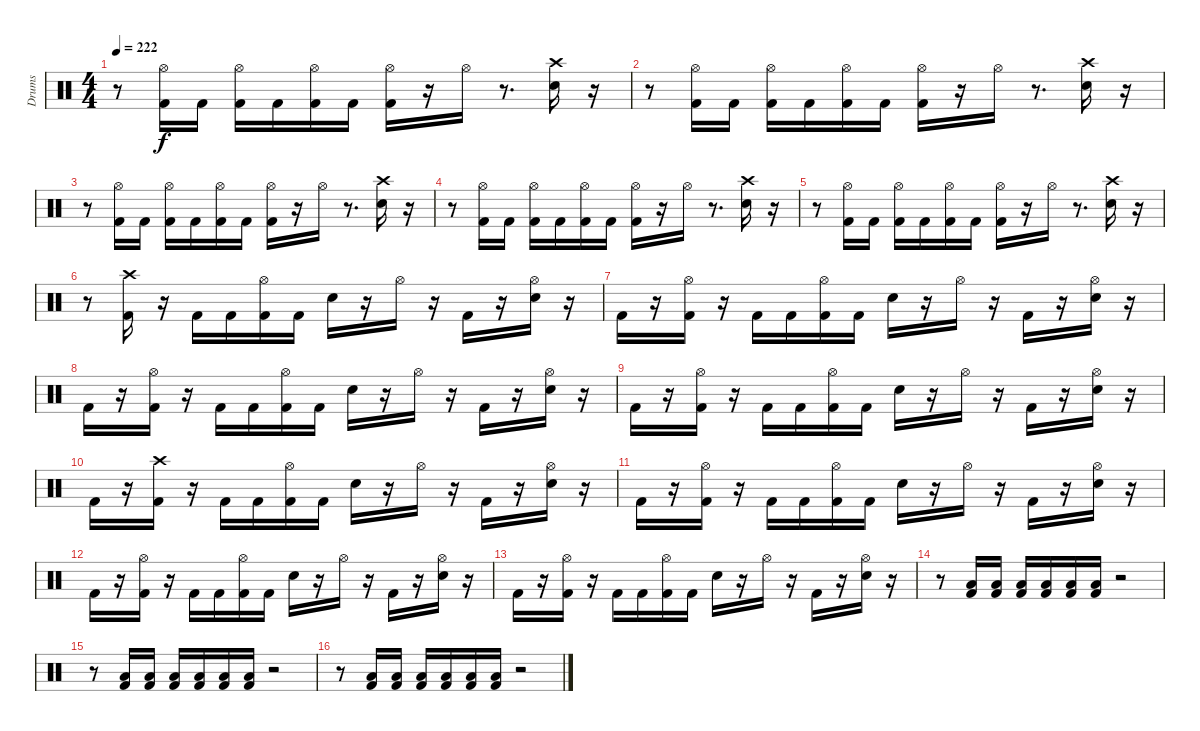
\track ("Drums" "Drums") {instrument percussion}
\staff {score}
\articulation defaults
\ts (4 4)
\tempo 222
\clef neutral
\ks c
r.8{dy f} ("Kick (hit) 2" "Hi-Hat (open)").16 "Kick (hit) 2".16 ("Kick (hit) 2" "Hi-Hat (open)").16 "Kick (hit) 2".16 ("Kick (hit) 2" "Hi-Hat (open)").16 "Kick (hit) 2".16 ("Kick (hit) 2" "Hi-Hat (open)").16 r.16 "Hi-Hat (open)".16 r.8{d} ("Snare (hit) 2" "Crash high (hit)").16 r.16 |
r.8 ("Kick (hit) 2" "Hi-Hat (open)").16 "Kick (hit) 2".16 ("Kick (hit) 2" "Hi-Hat (open)").16 "Kick (hit) 2".16 ("Kick (hit) 2" "Hi-Hat (open)").16 "Kick (hit) 2".16 ("Kick (hit) 2" "Hi-Hat (open)").16 r.16 "Hi-Hat (open)".16 r.8{d} ("Snare (hit) 2" "Crash high (hit)").16 r.16 |
r.8 ("Kick (hit) 2" "Hi-Hat (open)").16 "Kick (hit) 2".16 ("Kick (hit) 2" "Hi-Hat (open)").16 "Kick (hit) 2".16 ("Kick (hit) 2" "Hi-Hat (open)").16 "Kick (hit) 2".16 ("Kick (hit) 2" "Hi-Hat (open)").16 r.16 "Hi-Hat (open)".16 r.8{d} ("Snare (hit) 2" "Crash high (hit)").16 r.16 |
r.8 ("Kick (hit) 2" "Hi-Hat (open)").16 "Kick (hit) 2".16 ("Kick (hit) 2" "Hi-Hat (open)").16 "Kick (hit) 2".16 ("Kick (hit) 2" "Hi-Hat (open)").16 "Kick (hit) 2".16 ("Kick (hit) 2" "Hi-Hat (open)").16 r.16 "Hi-Hat (open)".16 r.8{d} ("Snare (hit) 2" "Crash high (hit)").16 r.16 |
r.8 ("Kick (hit) 2" "Hi-Hat (open)").16 "Kick (hit) 2".16 ("Kick (hit) 2" "Hi-Hat (open)").16 "Kick (hit) 2".16 ("Kick (hit) 2" "Hi-Hat (open)").16 "Kick (hit) 2".16 ("Kick (hit) 2" "Hi-Hat (open)").16 r.16 "Hi-Hat (open)".16 r.8{d} ("Snare (hit) 2" "Crash high (hit)").16 r.16 |
r.8 ("Kick (hit) 2" "Crash high (hit)").16 r.16 "Kick (hit) 2".16 "Kick (hit) 2".16 ("Kick (hit) 2" "Hi-Hat (open)").16 "Kick (hit) 2".16 "Snare (hit) 2".16 r.16 "Hi-Hat (open)".16 r.16 "Kick (hit) 2".16 r.16 ("Snare (hit) 2" "Hi-Hat (open)").16 r.16 |
"Kick (hit) 2".16 r.16 ("Kick (hit) 2" "Hi-Hat (open)").16 r.16 "Kick (hit) 2".16 "Kick (hit) 2".16 ("Kick (hit) 2" "Hi-Hat (open)").16 "Kick (hit) 2".16 "Snare (hit) 2".16 r.16 "Hi-Hat (open)".16 r.16 "Kick (hit) 2".16 r.16 ("Snare (hit) 2" "Hi-Hat (open)").16 r.16 |
"Kick (hit) 2".16 r.16 ("Kick (hit) 2" "Hi-Hat (open)").16 r.16 "Kick (hit) 2".16 "Kick (hit) 2".16 ("Kick (hit) 2" "Hi-Hat (open)").16 "Kick (hit) 2".16 "Snare (hit) 2".16 r.16 "Hi-Hat (open)".16 r.16 "Kick (hit) 2".16 r.16 ("Snare (hit) 2" "Hi-Hat (open)").16 r.16 |
"Kick (hit) 2".16 r.16 ("Kick (hit) 2" "Hi-Hat (open)").16 r.16 "Kick (hit) 2".16 "Kick (hit) 2".16 ("Kick (hit) 2" "Hi-Hat (open)").16 "Kick (hit) 2".16 "Snare (hit) 2".16 r.16 "Hi-Hat (open)".16 r.16 "Kick (hit) 2".16 r.16 ("Snare (hit) 2" "Hi-Hat (open)").16 r.16 |
"Kick (hit) 2".16 r.16 ("Kick (hit) 2" "Crash high (hit)").16 r.16 "Kick (hit) 2".16 "Kick (hit) 2".16 ("Kick (hit) 2" "Hi-Hat (open)").16 "Kick (hit) 2".16 "Snare (hit) 2".16 r.16 "Hi-Hat (open)".16 r.16 "Kick (hit) 2".16 r.16 ("Snare (hit) 2" "Hi-Hat (open)").16 r.16 |
"Kick (hit) 2".16 r.16 ("Kick (hit) 2" "Hi-Hat (open)").16 r.16 "Kick (hit) 2".16 "Kick (hit) 2".16 ("Kick (hit) 2" "Hi-Hat (open)").16 "Kick (hit) 2".16 "Snare (hit) 2".16 r.16 "Hi-Hat (open)".16 r.16 "Kick (hit) 2".16 r.16 ("Snare (hit) 2" "Hi-Hat (open)").16 r.16 |
"Kick (hit) 2".16 r.16 ("Kick (hit) 2" "Hi-Hat (open)").16 r.16 "Kick (hit) 2".16 "Kick (hit) 2".16 ("Kick (hit) 2" "Hi-Hat (open)").16 "Kick (hit) 2".16 "Snare (hit) 2".16 r.16 "Hi-Hat (open)".16 r.16 "Kick (hit) 2".16 r.16 ("Snare (hit) 2" "Hi-Hat (open)").16 r.16 |
"Kick (hit) 2".16 r.16 ("Kick (hit) 2" "Hi-Hat (open)").16 r.16 "Kick (hit) 2".16 "Kick (hit) 2".16 ("Kick (hit) 2" "Hi-Hat (open)").16 "Kick (hit) 2".16 "Snare (hit) 2".16 r.16 "Hi-Hat (open)".16 r.16 "Kick (hit) 2".16 r.16 ("Snare (hit) 2" "Hi-Hat (open)").16 r.16 |
r.8 ("Kick (hit) 2" "Low Floor Tom (hit)").16 ("Kick (hit) 2" "Low Floor Tom (hit)").16 ("Kick (hit) 2" "Low Floor Tom (hit)").16 ("Kick (hit) 2" "Low Floor Tom (hit)").16 ("Kick (hit) 2" "Low Floor Tom (hit)").16 ("Kick (hit) 2" "Low Floor Tom (hit)").16 r.2 |
r.8 ("Kick (hit) 2" "Low Floor Tom (hit)").16 ("Kick (hit) 2" "Low Floor Tom (hit)").16 ("Kick (hit) 2" "Low Floor Tom (hit)").16 ("Kick (hit) 2" "Low Floor Tom (hit)").16 ("Kick (hit) 2" "Low Floor Tom (hit)").16 ("Kick (hit) 2" "Low Floor Tom (hit)").16 r.2 |
r.8 ("Kick (hit) 2" "Low Floor Tom (hit)").16 ("Kick (hit) 2" "Low Floor Tom (hit)").16 ("Kick (hit) 2" "Low Floor Tom (hit)").16 ("Kick (hit) 2" "Low Floor Tom (hit)").16 ("Kick (hit) 2" "Low Floor Tom (hit)").16 ("Kick (hit) 2" "Low Floor Tom (hit)").16 r.2
